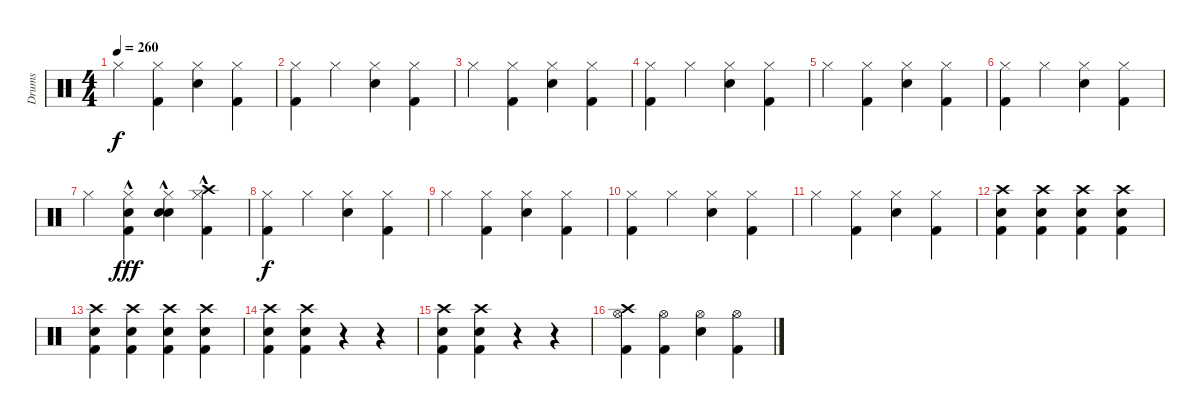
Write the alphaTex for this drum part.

\track ("Drums" "Drums") {instrument percussion bank 2}
\staff {score}
\articulation defaults
\ts (4 4)
\tempo 260
\clef neutral
\ks c "Hi-Hat (closed)".4{dy f}
("Hi-Hat (closed)" "Kick (hit) 2").4 ("Hi-Hat (closed)" "Snare (hit) 2").4 ("Hi-Hat (closed)" "Kick (hit) 2").4 |
("Hi-Hat (closed)" "Kick (hit) 2").4 "Hi-Hat (closed)".4 ("Hi-Hat (closed)" "Snare (hit) 2").4 ("Hi-Hat (closed)" "Kick (hit) 2").4 |
"Hi-Hat (closed)".4 ("Hi-Hat (closed)" "Kick (hit) 2").4 ("Hi-Hat (closed)" "Snare (hit) 2").4 ("Hi-Hat (closed)" "Kick (hit) 2").4 |
("Hi-Hat (closed)" "Kick (hit) 2").4 "Hi-Hat (closed)".4 ("Hi-Hat (closed)" "Snare (hit) 2").4 ("Hi-Hat (closed)" "Kick (hit) 2").4 |
"Hi-Hat (closed)".4 ("Hi-Hat (closed)" "Kick (hit) 2").4 ("Hi-Hat (closed)" "Snare (hit) 2").4 ("Hi-Hat (closed)" "Kick (hit) 2").4 |
("Hi-Hat (closed)" "Kick (hit) 2").4 "Hi-Hat (closed)".4 ("Hi-Hat (closed)" "Snare (hit) 2").4 ("Hi-Hat (closed)" "Kick (hit) 2").4 |
"Hi-Hat (closed)".4 ("Hi-Hat (closed)" "Kick (hit) 2" "Hand Clap (hit)"{hac}).4{dy fff} ("Hi-Hat (closed)" "Snare (hit) 2" "Hand Clap (hit)"{hac}).4 ("Hi-Hat (closed)" "Kick (hit) 2" "Crash high (hit)"{hac}).4 |
("Hi-Hat (closed)" "Kick (hit) 2").4{dy f} "Hi-Hat (closed)".4 ("Hi-Hat (closed)" "Snare (hit) 2").4 ("Hi-Hat (closed)" "Kick (hit) 2").4 |
"Hi-Hat (closed)".4 ("Hi-Hat (closed)" "Kick (hit) 2").4 ("Hi-Hat (closed)" "Snare (hit) 2").4 ("Hi-Hat (closed)" "Kick (hit) 2").4 |
("Hi-Hat (closed)" "Kick (hit) 2").4 "Hi-Hat (closed)".4 ("Hi-Hat (closed)" "Snare (hit) 2").4 ("Hi-Hat (closed)" "Kick (hit) 2").4 |
"Hi-Hat (closed)".4 ("Hi-Hat (closed)" "Kick (hit) 2").4 ("Hi-Hat (closed)" "Snare (hit) 2").4 ("Hi-Hat (closed)" "Kick (hit) 2").4 |
("Kick (hit) 2" "Snare (hit) 2" "Crash high (hit)").4 ("Kick (hit) 2" "Snare (hit) 2" "Crash high (hit)").4 ("Kick (hit) 2" "Snare (hit) 2" "Crash high (hit)").4 ("Kick (hit) 2" "Snare (hit) 2" "Crash high (hit)").4 |
("Kick (hit) 2" "Snare (hit) 2" "Crash high (hit)").4 ("Kick (hit) 2" "Snare (hit) 2" "Crash high (hit)").4 ("Kick (hit) 2" "Snare (hit) 2" "Crash high (hit)").4 ("Kick (hit) 2" "Snare (hit) 2" "Crash high (hit)").4 |
("Kick (hit) 2" "Crash high (hit)" "Snare (hit) 2").4 ("Kick (hit) 2" "Crash high (hit)" "Snare (hit) 2").4 r.4 r.4 |
("Kick (hit) 2" "Crash high (hit)" "Snare (hit) 2").4 ("Kick (hit) 2" "Crash high (hit)" "Snare (hit) 2").4 r.4 r.4 |
("Kick (hit) 2" "Hi-Hat (open)" "Crash high (hit)").4 ("Kick (hit) 2" "Hi-Hat (open)").4 ("Snare (hit) 2" "Hi-Hat (open)").4 ("Kick (hit) 2" "Hi-Hat (open)").4
